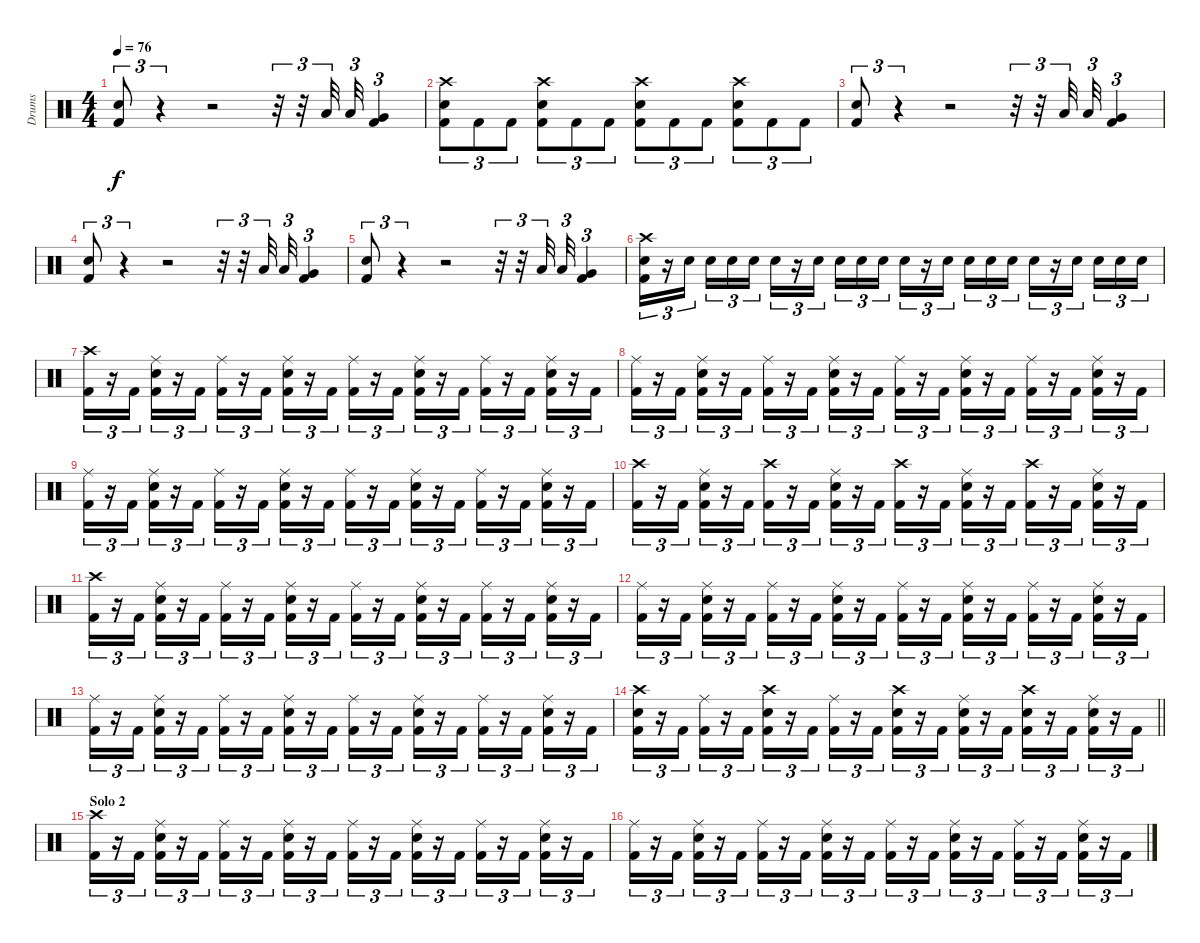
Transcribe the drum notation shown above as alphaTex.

\track ("Drums" "Drums") {instrument percussion}
\staff {score}
\articulation defaults
\ts (4 4)
\tempo 76
\clef neutral
\ks c
("Snare (hit) 2" "Kick (hit) 2").8{tu (3 2) dy f} r.4{tu (3 2)} r.2 r.32{tu (3 2)} r.32{tu (3 2)} "Low Tom (hit)".32{tu (3 2)} "Low Tom (hit)".32{tu (3 2)} ("Very Low Tom (hit)" "Kick (hit) 2").4{tu (3 2)} |
("Crash high (hit)" "Snare (hit) 2" "Kick (hit) 2").8{tu (3 2)} "Kick (hit) 2".8{tu (3 2)} "Kick (hit) 2".8{tu (3 2)} ("Crash high (hit)" "Snare (hit) 2" "Kick (hit) 2").8{tu (3 2)} "Kick (hit) 2".8{tu (3 2)} "Kick (hit) 2".8{tu (3 2)} ("Crash high (hit)" "Snare (hit) 2" "Kick (hit) 2").8{tu (3 2)} "Kick (hit) 2".8{tu (3 2)} "Kick (hit) 2".8{tu (3 2)} ("Crash high (hit)" "Snare (hit) 2" "Kick (hit) 2").8{tu (3 2)} "Kick (hit) 2".8{tu (3 2)} "Kick (hit) 2".8{tu (3 2)} |
("Snare (hit) 2" "Kick (hit) 2").8{tu (3 2)} r.4{tu (3 2)} r.2 r.32{tu (3 2)} r.32{tu (3 2)} "Low Tom (hit)".32{tu (3 2)} "Low Tom (hit)".32{tu (3 2)} ("Very Low Tom (hit)" "Kick (hit) 2").4{tu (3 2)} |
("Snare (hit) 2" "Kick (hit) 2").8{tu (3 2)} r.4{tu (3 2)} r.2 r.32{tu (3 2)} r.32{tu (3 2)} "Low Tom (hit)".32{tu (3 2)} "Low Tom (hit)".32{tu (3 2)} ("Very Low Tom (hit)" "Kick (hit) 2").4{tu (3 2)} |
("Snare (hit) 2" "Kick (hit) 2").8{tu (3 2)} r.4{tu (3 2)} r.2 r.32{tu (3 2)} r.32{tu (3 2)} "Low Tom (hit)".32{tu (3 2)} "Low Tom (hit)".32{tu (3 2)} ("Very Low Tom (hit)" "Kick (hit) 2").4{tu (3 2)} |
("Crash high (hit)" "Snare (hit) 2" "Kick (hit) 2").16{tu (3 2)} r.16{tu (3 2)} "Snare (hit) 2".16{tu (3 2) beam splitsecondary} "Snare (hit) 2".16{tu (3 2)} "Snare (hit) 2".16{tu (3 2)} "Snare (hit) 2".16{tu (3 2)} "Snare (hit) 2".16{tu (3 2)} r.16{tu (3 2)} "Snare (hit) 2".16{tu (3 2) beam splitsecondary} "Snare (hit) 2".16{tu (3 2)} "Snare (hit) 2".16{tu (3 2)} "Snare (hit) 2".16{tu (3 2)} "Snare (hit) 2".16{tu (3 2)} r.16{tu (3 2)} "Snare (hit) 2".16{tu (3 2) beam splitsecondary} "Snare (hit) 2".16{tu (3 2)} "Snare (hit) 2".16{tu (3 2)} "Snare (hit) 2".16{tu (3 2)} "Snare (hit) 2".16{tu (3 2)} r.16{tu (3 2)} "Snare (hit) 2".16{tu (3 2) beam splitsecondary} "Snare (hit) 2".16{tu (3 2)} "Snare (hit) 2".16{tu (3 2)} "Snare (hit) 2".16{tu (3 2)} |
("Crash high (hit)" "Kick (hit) 2").16{tu (3 2)} r.16{tu (3 2)} "Kick (hit) 2".16{tu (3 2)} ("Ride (middle)" "Snare (hit) 2" "Kick (hit) 2").16{tu (3 2)} r.16{tu (3 2)} "Kick (hit) 2".16{tu (3 2)} ("Ride (middle)" "Kick (hit) 2").16{tu (3 2)} r.16{tu (3 2)} "Kick (hit) 2".16{tu (3 2)} ("Ride (middle)" "Snare (hit) 2" "Kick (hit) 2").16{tu (3 2)} r.16{tu (3 2)} "Kick (hit) 2".16{tu (3 2)} ("Ride (middle)" "Kick (hit) 2").16{tu (3 2)} r.16{tu (3 2)} "Kick (hit) 2".16{tu (3 2)} ("Ride (middle)" "Snare (hit) 2" "Kick (hit) 2").16{tu (3 2)} r.16{tu (3 2)} "Kick (hit) 2".16{tu (3 2)} ("Ride (middle)" "Kick (hit) 2").16{tu (3 2)} r.16{tu (3 2)} "Kick (hit) 2".16{tu (3 2)} ("Ride (middle)" "Snare (hit) 2" "Kick (hit) 2").16{tu (3 2)} r.16{tu (3 2)} "Kick (hit) 2".16{tu (3 2)} |
("Ride (middle)" "Kick (hit) 2").16{tu (3 2)} r.16{tu (3 2)} "Kick (hit) 2".16{tu (3 2)} ("Ride (middle)" "Snare (hit) 2" "Kick (hit) 2").16{tu (3 2)} r.16{tu (3 2)} "Kick (hit) 2".16{tu (3 2)} ("Ride (middle)" "Kick (hit) 2").16{tu (3 2)} r.16{tu (3 2)} "Kick (hit) 2".16{tu (3 2)} ("Ride (middle)" "Snare (hit) 2" "Kick (hit) 2").16{tu (3 2)} r.16{tu (3 2)} "Kick (hit) 2".16{tu (3 2)} ("Ride (middle)" "Kick (hit) 2").16{tu (3 2)} r.16{tu (3 2)} "Kick (hit) 2".16{tu (3 2)} ("Ride (middle)" "Snare (hit) 2" "Kick (hit) 2").16{tu (3 2)} r.16{tu (3 2)} "Kick (hit) 2".16{tu (3 2)} ("Ride (middle)" "Kick (hit) 2").16{tu (3 2)} r.16{tu (3 2)} "Kick (hit) 2".16{tu (3 2)} ("Ride (middle)" "Snare (hit) 2" "Kick (hit) 2").16{tu (3 2)} r.16{tu (3 2)} "Kick (hit) 2".16{tu (3 2)} |
("Ride (middle)" "Kick (hit) 2").16{tu (3 2)} r.16{tu (3 2)} "Kick (hit) 2".16{tu (3 2)} ("Ride (middle)" "Snare (hit) 2" "Kick (hit) 2").16{tu (3 2)} r.16{tu (3 2)} "Kick (hit) 2".16{tu (3 2)} ("Ride (middle)" "Kick (hit) 2").16{tu (3 2)} r.16{tu (3 2)} "Kick (hit) 2".16{tu (3 2)} ("Ride (middle)" "Snare (hit) 2" "Kick (hit) 2").16{tu (3 2)} r.16{tu (3 2)} "Kick (hit) 2".16{tu (3 2)} ("Ride (middle)" "Kick (hit) 2").16{tu (3 2)} r.16{tu (3 2)} "Kick (hit) 2".16{tu (3 2)} ("Ride (middle)" "Snare (hit) 2" "Kick (hit) 2").16{tu (3 2)} r.16{tu (3 2)} "Kick (hit) 2".16{tu (3 2)} ("Ride (middle)" "Kick (hit) 2").16{tu (3 2)} r.16{tu (3 2)} "Kick (hit) 2".16{tu (3 2)} ("Ride (middle)" "Snare (hit) 2" "Kick (hit) 2").16{tu (3 2)} r.16{tu (3 2)} "Kick (hit) 2".16{tu (3 2)} |
("Crash high (hit)" "Kick (hit) 2").16{tu (3 2)} r.16{tu (3 2)} "Kick (hit) 2".16{tu (3 2)} ("Ride (middle)" "Snare (hit) 2" "Kick (hit) 2").16{tu (3 2)} r.16{tu (3 2)} "Kick (hit) 2".16{tu (3 2)} ("Crash high (hit)" "Kick (hit) 2").16{tu (3 2)} r.16{tu (3 2)} "Kick (hit) 2".16{tu (3 2)} ("Ride (middle)" "Snare (hit) 2" "Kick (hit) 2").16{tu (3 2)} r.16{tu (3 2)} "Kick (hit) 2".16{tu (3 2)} ("Crash high (hit)" "Kick (hit) 2").16{tu (3 2)} r.16{tu (3 2)} "Kick (hit) 2".16{tu (3 2)} ("Ride (middle)" "Snare (hit) 2" "Kick (hit) 2").16{tu (3 2)} r.16{tu (3 2)} "Kick (hit) 2".16{tu (3 2)} ("Crash high (hit)" "Kick (hit) 2").16{tu (3 2)} r.16{tu (3 2)} "Kick (hit) 2".16{tu (3 2)} ("Ride (middle)" "Snare (hit) 2" "Kick (hit) 2").16{tu (3 2)} r.16{tu (3 2)} "Kick (hit) 2".16{tu (3 2)} |
("Crash high (hit)" "Kick (hit) 2").16{tu (3 2)} r.16{tu (3 2)} "Kick (hit) 2".16{tu (3 2)} ("Ride (middle)" "Snare (hit) 2" "Kick (hit) 2").16{tu (3 2)} r.16{tu (3 2)} "Kick (hit) 2".16{tu (3 2)} ("Ride (middle)" "Kick (hit) 2").16{tu (3 2)} r.16{tu (3 2)} "Kick (hit) 2".16{tu (3 2)} ("Ride (middle)" "Snare (hit) 2" "Kick (hit) 2").16{tu (3 2)} r.16{tu (3 2)} "Kick (hit) 2".16{tu (3 2)} ("Ride (middle)" "Kick (hit) 2").16{tu (3 2)} r.16{tu (3 2)} "Kick (hit) 2".16{tu (3 2)} ("Ride (middle)" "Snare (hit) 2" "Kick (hit) 2").16{tu (3 2)} r.16{tu (3 2)} "Kick (hit) 2".16{tu (3 2)} ("Ride (middle)" "Kick (hit) 2").16{tu (3 2)} r.16{tu (3 2)} "Kick (hit) 2".16{tu (3 2)} ("Ride (middle)" "Snare (hit) 2" "Kick (hit) 2").16{tu (3 2)} r.16{tu (3 2)} "Kick (hit) 2".16{tu (3 2)} |
("Ride (middle)" "Kick (hit) 2").16{tu (3 2)} r.16{tu (3 2)} "Kick (hit) 2".16{tu (3 2)} ("Ride (middle)" "Snare (hit) 2" "Kick (hit) 2").16{tu (3 2)} r.16{tu (3 2)} "Kick (hit) 2".16{tu (3 2)} ("Ride (middle)" "Kick (hit) 2").16{tu (3 2)} r.16{tu (3 2)} "Kick (hit) 2".16{tu (3 2)} ("Ride (middle)" "Snare (hit) 2" "Kick (hit) 2").16{tu (3 2)} r.16{tu (3 2)} "Kick (hit) 2".16{tu (3 2)} ("Ride (middle)" "Kick (hit) 2").16{tu (3 2)} r.16{tu (3 2)} "Kick (hit) 2".16{tu (3 2)} ("Ride (middle)" "Snare (hit) 2" "Kick (hit) 2").16{tu (3 2)} r.16{tu (3 2)} "Kick (hit) 2".16{tu (3 2)} ("Ride (middle)" "Kick (hit) 2").16{tu (3 2)} r.16{tu (3 2)} "Kick (hit) 2".16{tu (3 2)} ("Ride (middle)" "Snare (hit) 2" "Kick (hit) 2").16{tu (3 2)} r.16{tu (3 2)} "Kick (hit) 2".16{tu (3 2)} |
("Ride (middle)" "Kick (hit) 2").16{tu (3 2)} r.16{tu (3 2)} "Kick (hit) 2".16{tu (3 2)} ("Ride (middle)" "Snare (hit) 2" "Kick (hit) 2").16{tu (3 2)} r.16{tu (3 2)} "Kick (hit) 2".16{tu (3 2)} ("Ride (middle)" "Kick (hit) 2").16{tu (3 2)} r.16{tu (3 2)} "Kick (hit) 2".16{tu (3 2)} ("Ride (middle)" "Snare (hit) 2" "Kick (hit) 2").16{tu (3 2)} r.16{tu (3 2)} "Kick (hit) 2".16{tu (3 2)} ("Ride (middle)" "Kick (hit) 2").16{tu (3 2)} r.16{tu (3 2)} "Kick (hit) 2".16{tu (3 2)} ("Ride (middle)" "Snare (hit) 2" "Kick (hit) 2").16{tu (3 2)} r.16{tu (3 2)} "Kick (hit) 2".16{tu (3 2)} ("Ride (middle)" "Kick (hit) 2").16{tu (3 2)} r.16{tu (3 2)} "Kick (hit) 2".16{tu (3 2)} ("Ride (middle)" "Snare (hit) 2" "Kick (hit) 2").16{tu (3 2)} r.16{tu (3 2)} "Kick (hit) 2".16{tu (3 2)} |
\barLineRight lightlight
("Crash high (hit)" "Snare (hit) 2" "Kick (hit) 2").16{tu (3 2)} r.16{tu (3 2)} "Kick (hit) 2".16{tu (3 2)} ("Ride (middle)" "Kick (hit) 2").16{tu (3 2)} r.16{tu (3 2)} "Kick (hit) 2".16{tu (3 2)} ("Crash high (hit)" "Snare (hit) 2" "Kick (hit) 2").16{tu (3 2)} r.16{tu (3 2)} "Kick (hit) 2".16{tu (3 2)} ("Ride (middle)" "Kick (hit) 2").16{tu (3 2)} r.16{tu (3 2)} "Kick (hit) 2".16{tu (3 2)} ("Crash high (hit)" "Snare (hit) 2" "Kick (hit) 2").16{tu (3 2)} r.16{tu (3 2)} "Kick (hit) 2".16{tu (3 2)} ("Ride (middle)" "Snare (hit) 2" "Kick (hit) 2").16{tu (3 2)} r.16{tu (3 2)} "Kick (hit) 2".16{tu (3 2)} ("Crash high (hit)" "Snare (hit) 2" "Kick (hit) 2").16{tu (3 2)} r.16{tu (3 2)} "Kick (hit) 2".16{tu (3 2)} ("Ride (middle)" "Snare (hit) 2" "Kick (hit) 2").16{tu (3 2)} r.16{tu (3 2)} "Kick (hit) 2".16{tu (3 2)} |
\section ("" "Solo 2")
("Crash high (hit)" "Kick (hit) 2").16{tu (3 2)} r.16{tu (3 2)} "Kick (hit) 2".16{tu (3 2)} ("Ride (middle)" "Snare (hit) 2" "Kick (hit) 2").16{tu (3 2)} r.16{tu (3 2)} "Kick (hit) 2".16{tu (3 2)} ("Ride (middle)" "Kick (hit) 2").16{tu (3 2)} r.16{tu (3 2)} "Kick (hit) 2".16{tu (3 2)} ("Ride (middle)" "Snare (hit) 2" "Kick (hit) 2").16{tu (3 2)} r.16{tu (3 2)} "Kick (hit) 2".16{tu (3 2)} ("Ride (middle)" "Kick (hit) 2").16{tu (3 2)} r.16{tu (3 2)} "Kick (hit) 2".16{tu (3 2)} ("Ride (middle)" "Snare (hit) 2" "Kick (hit) 2").16{tu (3 2)} r.16{tu (3 2)} "Kick (hit) 2".16{tu (3 2)} ("Ride (middle)" "Kick (hit) 2").16{tu (3 2)} r.16{tu (3 2)} "Kick (hit) 2".16{tu (3 2)} ("Ride (middle)" "Snare (hit) 2" "Kick (hit) 2").16{tu (3 2)} r.16{tu (3 2)} "Kick (hit) 2".16{tu (3 2)} |
("Ride (middle)" "Kick (hit) 2").16{tu (3 2)} r.16{tu (3 2)} "Kick (hit) 2".16{tu (3 2)} ("Ride (middle)" "Snare (hit) 2" "Kick (hit) 2").16{tu (3 2)} r.16{tu (3 2)} "Kick (hit) 2".16{tu (3 2)} ("Ride (middle)" "Kick (hit) 2").16{tu (3 2)} r.16{tu (3 2)} "Kick (hit) 2".16{tu (3 2)} ("Ride (middle)" "Snare (hit) 2" "Kick (hit) 2").16{tu (3 2)} r.16{tu (3 2)} "Kick (hit) 2".16{tu (3 2)} ("Ride (middle)" "Kick (hit) 2").16{tu (3 2)} r.16{tu (3 2)} "Kick (hit) 2".16{tu (3 2)} ("Ride (middle)" "Snare (hit) 2" "Kick (hit) 2").16{tu (3 2)} r.16{tu (3 2)} "Kick (hit) 2".16{tu (3 2)} ("Ride (middle)" "Kick (hit) 2").16{tu (3 2)} r.16{tu (3 2)} "Kick (hit) 2".16{tu (3 2)} ("Ride (middle)" "Snare (hit) 2" "Kick (hit) 2").16{tu (3 2)} r.16{tu (3 2)} "Kick (hit) 2".16{tu (3 2)}
